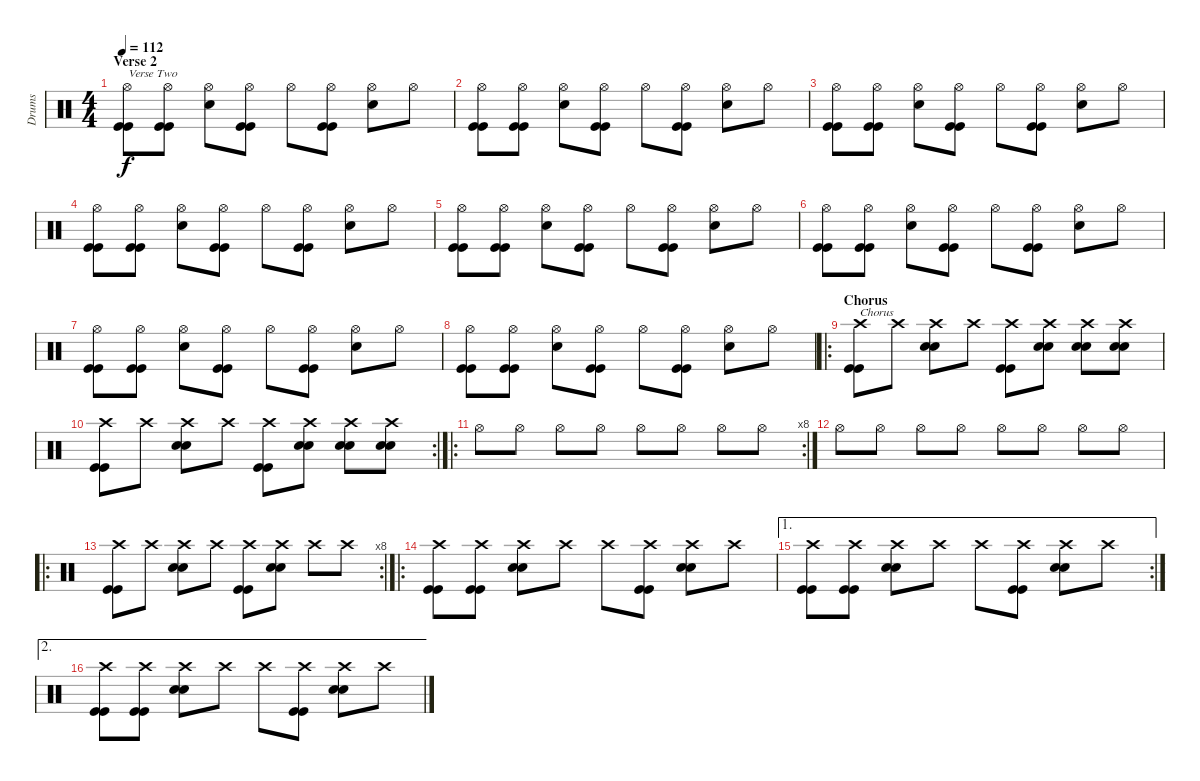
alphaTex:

\track ("Drums" "Drums") {instrument percussion}
\staff {score}
\articulation defaults
\ts (4 4)
\section ("" "Verse 2")
\tempo 112
\clef neutral
\ks c
("Hi-Hat (open)" "Kick (hit)" "Kick (hit)").8{txt "Verse Two" dy f} ("Hi-Hat (open)" "Kick (hit)" "Kick (hit)").8 ("Hi-Hat (open)" "Snare (hit) 2").8 ("Hi-Hat (open)" "Kick (hit)" "Kick (hit)").8 "Hi-Hat (open)".8 ("Hi-Hat (open)" "Kick (hit)" "Kick (hit)").8 ("Hi-Hat (open)" "Snare (hit) 2").8 "Hi-Hat (open)".8 |
("Hi-Hat (open)" "Kick (hit)" "Kick (hit)").8 ("Hi-Hat (open)" "Kick (hit)" "Kick (hit)").8 ("Hi-Hat (open)" "Snare (hit) 2").8 ("Hi-Hat (open)" "Kick (hit)" "Kick (hit)").8 "Hi-Hat (open)".8 ("Hi-Hat (open)" "Kick (hit)" "Kick (hit)").8 ("Hi-Hat (open)" "Snare (hit) 2").8 "Hi-Hat (open)".8 |
("Hi-Hat (open)" "Kick (hit)" "Kick (hit)").8 ("Hi-Hat (open)" "Kick (hit)" "Kick (hit)").8 ("Hi-Hat (open)" "Snare (hit) 2").8 ("Hi-Hat (open)" "Kick (hit)" "Kick (hit)").8 "Hi-Hat (open)".8 ("Hi-Hat (open)" "Kick (hit)" "Kick (hit)").8 ("Hi-Hat (open)" "Snare (hit) 2").8 "Hi-Hat (open)".8 |
("Hi-Hat (open)" "Kick (hit)" "Kick (hit)").8 ("Hi-Hat (open)" "Kick (hit)" "Kick (hit)").8 ("Hi-Hat (open)" "Snare (hit) 2").8 ("Hi-Hat (open)" "Kick (hit)" "Kick (hit)").8 "Hi-Hat (open)".8 ("Hi-Hat (open)" "Kick (hit)" "Kick (hit)").8 ("Hi-Hat (open)" "Snare (hit) 2").8 "Hi-Hat (open)".8 |
("Hi-Hat (open)" "Kick (hit)" "Kick (hit)").8 ("Hi-Hat (open)" "Kick (hit)" "Kick (hit)").8 ("Hi-Hat (open)" "Snare (hit) 2").8 ("Hi-Hat (open)" "Kick (hit)" "Kick (hit)").8 "Hi-Hat (open)".8 ("Hi-Hat (open)" "Kick (hit)" "Kick (hit)").8 ("Hi-Hat (open)" "Snare (hit) 2").8 "Hi-Hat (open)".8 |
("Hi-Hat (open)" "Kick (hit)" "Kick (hit)").8 ("Hi-Hat (open)" "Kick (hit)" "Kick (hit)").8 ("Hi-Hat (open)" "Snare (hit) 2").8 ("Hi-Hat (open)" "Kick (hit)" "Kick (hit)").8 "Hi-Hat (open)".8 ("Hi-Hat (open)" "Kick (hit)" "Kick (hit)").8 ("Hi-Hat (open)" "Snare (hit) 2").8 "Hi-Hat (open)".8 |
("Hi-Hat (open)" "Kick (hit)" "Kick (hit)").8 ("Hi-Hat (open)" "Kick (hit)" "Kick (hit)").8 ("Hi-Hat (open)" "Snare (hit) 2").8 ("Hi-Hat (open)" "Kick (hit)" "Kick (hit)").8 "Hi-Hat (open)".8 ("Hi-Hat (open)" "Kick (hit)" "Kick (hit)").8 ("Hi-Hat (open)" "Snare (hit) 2").8 "Hi-Hat (open)".8 |
("Hi-Hat (open)" "Kick (hit)" "Kick (hit)").8 ("Hi-Hat (open)" "Kick (hit)" "Kick (hit)").8 ("Hi-Hat (open)" "Snare (hit) 2").8 ("Hi-Hat (open)" "Kick (hit)" "Kick (hit)").8 "Hi-Hat (open)".8 ("Hi-Hat (open)" "Kick (hit)" "Kick (hit)").8 ("Hi-Hat (open)" "Snare (hit) 2").8 "Hi-Hat (open)".8 |
\ro
\section ("" "Chorus")
("Crash high (hit)" "Kick (hit)" "Kick (hit)").8{txt "Chorus"} "Crash high (hit)".8 ("Crash high (hit)" "Snare (hit) 2" "Snare (hit) 2").8 "Crash high (hit)".8 ("Crash high (hit)" "Kick (hit)" "Kick (hit)").8 ("Crash high (hit)" "Snare (hit) 2" "Snare (hit) 2").8 ("Crash high (hit)" "Snare (hit) 2" "Snare (hit) 2").8 ("Crash high (hit)" "Snare (hit) 2" "Snare (hit) 2").8 |
\rc 2
("Crash high (hit)" "Kick (hit)" "Kick (hit)").8 "Crash high (hit)".8 ("Crash high (hit)" "Snare (hit) 2" "Snare (hit) 2").8 "Crash high (hit)".8 ("Crash high (hit)" "Kick (hit)" "Kick (hit)").8 ("Crash high (hit)" "Snare (hit) 2" "Snare (hit) 2").8 ("Crash high (hit)" "Snare (hit) 2" "Snare (hit) 2").8 ("Crash high (hit)" "Snare (hit) 2" "Snare (hit) 2").8 |
\ro
\rc 8 "Hi-Hat (open)".8 "Hi-Hat (open)".8 "Hi-Hat (open)".8 "Hi-Hat (open)".8 "Hi-Hat (open)".8 "Hi-Hat (open)".8 "Hi-Hat (open)".8 "Hi-Hat (open)".8
|
"Hi-Hat (open)".8 "Hi-Hat (open)".8 "Hi-Hat (open)".8 "Hi-Hat (open)".8 "Hi-Hat (open)".8 "Hi-Hat (open)".8 "Hi-Hat (open)".8 "Hi-Hat (open)".8 |
\ro
\rc 8
("Crash high (hit)" "Kick (hit)" "Kick (hit)").8 "Crash high (hit)".8 ("Crash high (hit)" "Snare (hit) 2" "Snare (hit) 2").8 "Crash high (hit)".8 ("Crash high (hit)" "Kick (hit)" "Kick (hit)").8 ("Crash high (hit)" "Snare (hit) 2" "Snare (hit) 2").8 "Crash high (hit)".8 "Crash high (hit)".8 |
\ro
("Crash high (hit)" "Kick (hit)" "Kick (hit)").8 ("Crash high (hit)" "Kick (hit)" "Kick (hit)").8 ("Crash high (hit)" "Snare (hit) 2" "Snare (hit) 2").8 "Crash high (hit)".8 "Crash high (hit)".8 ("Crash high (hit)" "Kick (hit)" "Kick (hit)").8 ("Crash high (hit)" "Snare (hit) 2" "Snare (hit) 2").8 "Crash high (hit)".8 |
\ae 1
\rc 2
("Crash high (hit)" "Kick (hit)" "Kick (hit)").8 ("Crash high (hit)" "Kick (hit)" "Kick (hit)").8 ("Crash high (hit)" "Snare (hit) 2" "Snare (hit) 2").8 "Crash high (hit)".8 "Crash high (hit)".8 ("Crash high (hit)" "Kick (hit)" "Kick (hit)").8 ("Crash high (hit)" "Snare (hit) 2" "Snare (hit) 2").8 "Crash high (hit)".8 |
\ae 2
("Crash high (hit)" "Kick (hit)" "Kick (hit)").8 ("Crash high (hit)" "Kick (hit)" "Kick (hit)").8 ("Crash high (hit)" "Snare (hit) 2" "Snare (hit) 2").8 "Crash high (hit)".8 "Crash high (hit)".8 ("Crash high (hit)" "Kick (hit)" "Kick (hit)").8 ("Crash high (hit)" "Snare (hit) 2" "Snare (hit) 2").8 "Crash high (hit)".8
